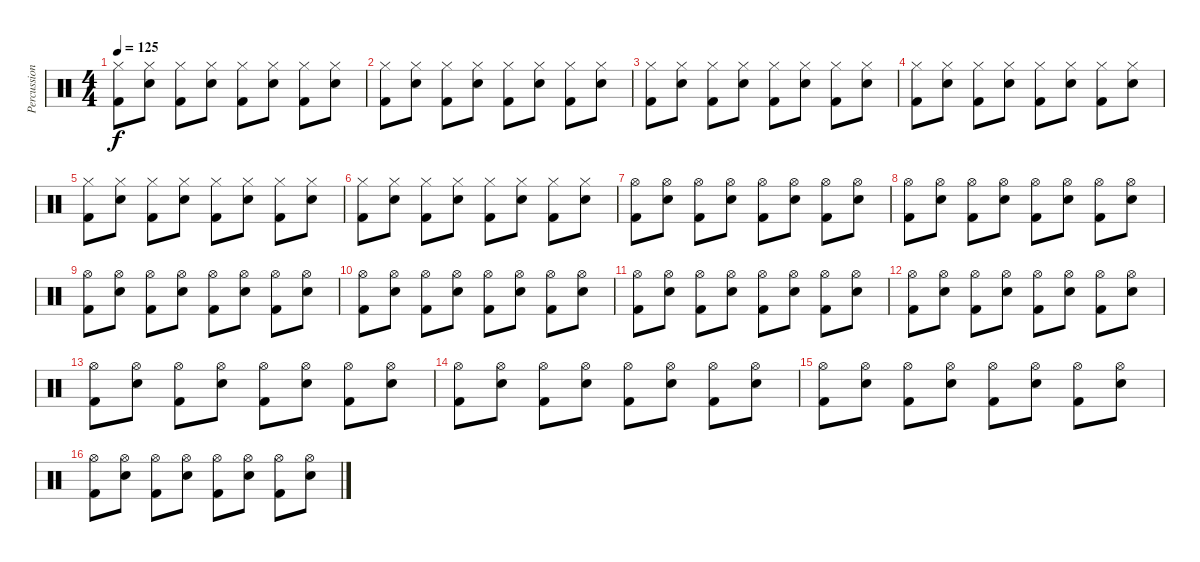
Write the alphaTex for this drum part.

\track ("Percussion" "Percussion") {instrument percussion}
\staff {score}
\articulation defaults
\ts (4 4)
\tempo 125
\clef neutral
\ks c
("Hi-Hat (closed)" "Kick (hit) 2").8{dy f} ("Snare (hit) 2" "Hi-Hat (closed)").8 ("Hi-Hat (closed)" "Kick (hit) 2").8 ("Snare (hit) 2" "Hi-Hat (closed)").8 ("Hi-Hat (closed)" "Kick (hit) 2").8 ("Snare (hit) 2" "Hi-Hat (closed)").8 ("Hi-Hat (closed)" "Kick (hit) 2").8 ("Snare (hit) 2" "Hi-Hat (closed)").8 |
("Hi-Hat (closed)" "Kick (hit) 2").8 ("Snare (hit) 2" "Hi-Hat (closed)").8 ("Hi-Hat (closed)" "Kick (hit) 2").8 ("Snare (hit) 2" "Hi-Hat (closed)").8 ("Hi-Hat (closed)" "Kick (hit) 2").8 ("Snare (hit) 2" "Hi-Hat (closed)").8 ("Hi-Hat (closed)" "Kick (hit) 2").8 ("Snare (hit) 2" "Hi-Hat (closed)").8 |
("Hi-Hat (closed)" "Kick (hit) 2").8 ("Snare (hit) 2" "Hi-Hat (closed)").8 ("Hi-Hat (closed)" "Kick (hit) 2").8 ("Snare (hit) 2" "Hi-Hat (closed)").8 ("Hi-Hat (closed)" "Kick (hit) 2").8 ("Snare (hit) 2" "Hi-Hat (closed)").8 ("Hi-Hat (closed)" "Kick (hit) 2").8 ("Snare (hit) 2" "Hi-Hat (closed)").8 |
("Hi-Hat (closed)" "Kick (hit) 2").8 ("Snare (hit) 2" "Hi-Hat (closed)").8 ("Hi-Hat (closed)" "Kick (hit) 2").8 ("Snare (hit) 2" "Hi-Hat (closed)").8 ("Hi-Hat (closed)" "Kick (hit) 2").8 ("Snare (hit) 2" "Hi-Hat (closed)").8 ("Hi-Hat (closed)" "Kick (hit) 2").8 ("Snare (hit) 2" "Hi-Hat (closed)").8 |
("Hi-Hat (closed)" "Kick (hit) 2").8 ("Snare (hit) 2" "Hi-Hat (closed)").8 ("Hi-Hat (closed)" "Kick (hit) 2").8 ("Snare (hit) 2" "Hi-Hat (closed)").8 ("Hi-Hat (closed)" "Kick (hit) 2").8 ("Snare (hit) 2" "Hi-Hat (closed)").8 ("Hi-Hat (closed)" "Kick (hit) 2").8 ("Snare (hit) 2" "Hi-Hat (closed)").8 |
("Hi-Hat (closed)" "Kick (hit) 2").8 ("Snare (hit) 2" "Hi-Hat (closed)").8 ("Hi-Hat (closed)" "Kick (hit) 2").8 ("Snare (hit) 2" "Hi-Hat (closed)").8 ("Hi-Hat (closed)" "Kick (hit) 2").8 ("Snare (hit) 2" "Hi-Hat (closed)").8 ("Hi-Hat (closed)" "Kick (hit) 2").8 ("Snare (hit) 2" "Hi-Hat (closed)").8 |
("Hi-Hat (open)" "Kick (hit) 2").8 ("Snare (hit) 2" "Hi-Hat (open)").8 ("Hi-Hat (open)" "Kick (hit) 2").8 ("Snare (hit) 2" "Hi-Hat (open)").8 ("Hi-Hat (open)" "Kick (hit) 2").8 ("Snare (hit) 2" "Hi-Hat (open)").8 ("Hi-Hat (open)" "Kick (hit) 2").8 ("Snare (hit) 2" "Hi-Hat (open)").8 |
("Hi-Hat (open)" "Kick (hit) 2").8 ("Snare (hit) 2" "Hi-Hat (open)").8 ("Hi-Hat (open)" "Kick (hit) 2").8 ("Snare (hit) 2" "Hi-Hat (open)").8 ("Hi-Hat (open)" "Kick (hit) 2").8 ("Snare (hit) 2" "Hi-Hat (open)").8 ("Hi-Hat (open)" "Kick (hit) 2").8 ("Snare (hit) 2" "Hi-Hat (open)").8 |
("Hi-Hat (open)" "Kick (hit) 2").8 ("Snare (hit) 2" "Hi-Hat (open)").8 ("Hi-Hat (open)" "Kick (hit) 2").8 ("Snare (hit) 2" "Hi-Hat (open)").8 ("Hi-Hat (open)" "Kick (hit) 2").8 ("Snare (hit) 2" "Hi-Hat (open)").8 ("Hi-Hat (open)" "Kick (hit) 2").8 ("Snare (hit) 2" "Hi-Hat (open)").8 |
("Hi-Hat (open)" "Kick (hit) 2").8 ("Snare (hit) 2" "Hi-Hat (open)").8 ("Hi-Hat (open)" "Kick (hit) 2").8 ("Snare (hit) 2" "Hi-Hat (open)").8 ("Hi-Hat (open)" "Kick (hit) 2").8 ("Snare (hit) 2" "Hi-Hat (open)").8 ("Hi-Hat (open)" "Kick (hit) 2").8 ("Snare (hit) 2" "Hi-Hat (open)").8 |
("Hi-Hat (open)" "Kick (hit) 2").8 ("Snare (hit) 2" "Hi-Hat (open)").8 ("Hi-Hat (open)" "Kick (hit) 2").8 ("Snare (hit) 2" "Hi-Hat (open)").8 ("Hi-Hat (open)" "Kick (hit) 2").8 ("Snare (hit) 2" "Hi-Hat (open)").8 ("Hi-Hat (open)" "Kick (hit) 2").8 ("Snare (hit) 2" "Hi-Hat (open)").8 |
("Hi-Hat (open)" "Kick (hit) 2").8 ("Snare (hit) 2" "Hi-Hat (open)").8 ("Hi-Hat (open)" "Kick (hit) 2").8 ("Snare (hit) 2" "Hi-Hat (open)").8 ("Hi-Hat (open)" "Kick (hit) 2").8 ("Snare (hit) 2" "Hi-Hat (open)").8 ("Hi-Hat (open)" "Kick (hit) 2").8 ("Snare (hit) 2" "Hi-Hat (open)").8 |
("Hi-Hat (open)" "Kick (hit) 2").8 ("Snare (hit) 2" "Hi-Hat (open)").8 ("Hi-Hat (open)" "Kick (hit) 2").8 ("Snare (hit) 2" "Hi-Hat (open)").8 ("Hi-Hat (open)" "Kick (hit) 2").8 ("Snare (hit) 2" "Hi-Hat (open)").8 ("Hi-Hat (open)" "Kick (hit) 2").8 ("Snare (hit) 2" "Hi-Hat (open)").8 |
("Hi-Hat (open)" "Kick (hit) 2").8 ("Snare (hit) 2" "Hi-Hat (open)").8 ("Hi-Hat (open)" "Kick (hit) 2").8 ("Snare (hit) 2" "Hi-Hat (open)").8 ("Hi-Hat (open)" "Kick (hit) 2").8 ("Snare (hit) 2" "Hi-Hat (open)").8 ("Hi-Hat (open)" "Kick (hit) 2").8 ("Snare (hit) 2" "Hi-Hat (open)").8 |
("Hi-Hat (open)" "Kick (hit) 2").8 ("Snare (hit) 2" "Hi-Hat (open)").8 ("Hi-Hat (open)" "Kick (hit) 2").8 ("Snare (hit) 2" "Hi-Hat (open)").8 ("Hi-Hat (open)" "Kick (hit) 2").8 ("Snare (hit) 2" "Hi-Hat (open)").8 ("Hi-Hat (open)" "Kick (hit) 2").8 ("Snare (hit) 2" "Hi-Hat (open)").8 |
("Hi-Hat (open)" "Kick (hit) 2").8 ("Snare (hit) 2" "Hi-Hat (open)").8 ("Hi-Hat (open)" "Kick (hit) 2").8 ("Snare (hit) 2" "Hi-Hat (open)").8 ("Hi-Hat (open)" "Kick (hit) 2").8 ("Snare (hit) 2" "Hi-Hat (open)").8 ("Hi-Hat (open)" "Kick (hit) 2").8 ("Snare (hit) 2" "Hi-Hat (open)").8
